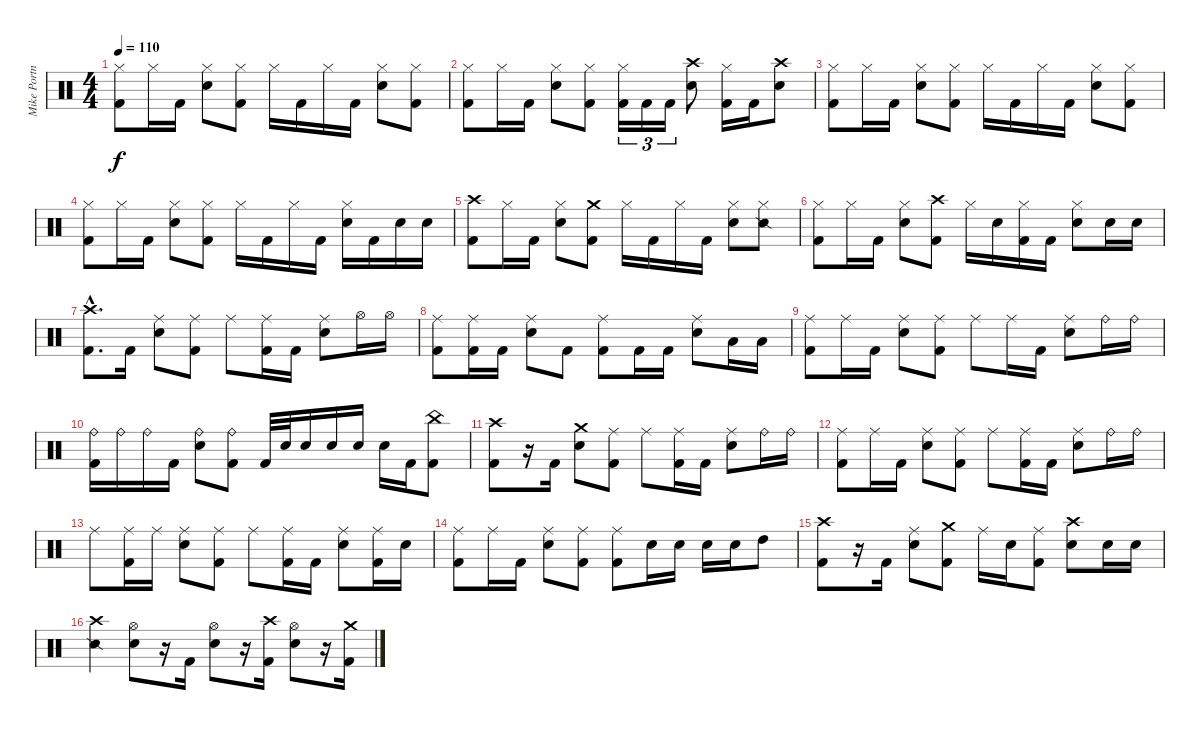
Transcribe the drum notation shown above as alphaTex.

\track ("Mike Portnoy - Drums" "Mike Portn") {instrument percussion}
\staff {score}
\articulation defaults
\ts (4 4)
\tempo 110
\clef neutral
\ks c
("Hi-Hat (closed)" "Kick (hit) 2").8{dy f} "Hi-Hat (closed)".16 "Kick (hit) 2".16 ("Hi-Hat (closed)" "Electric Snare (hit)").8 ("Hi-Hat (closed)" "Kick (hit) 2").8 "Hi-Hat (closed)".16 "Kick (hit) 2".16 "Hi-Hat (closed)".16 "Kick (hit) 2".16 ("Hi-Hat (closed)" "Electric Snare (hit)").8 ("Hi-Hat (closed)" "Kick (hit) 2").8 |
("Hi-Hat (closed)" "Kick (hit) 2").8 "Hi-Hat (closed)".16 "Kick (hit) 2".16 ("Hi-Hat (closed)" "Electric Snare (hit)").8 ("Hi-Hat (closed)" "Kick (hit) 2").8 ("Hi-Hat (closed)" "Kick (hit) 2").16{tu (3 2)} "Kick (hit) 2".16{tu (3 2)} "Kick (hit) 2".16{tu (3 2)} ("Crash high (hit)" "Electric Snare (hit)").8 ("Hi-Hat (closed)" "Kick (hit) 2").16 "Kick (hit) 2".16 ("Crash high (hit)" "Electric Snare (hit)").8 |
("Hi-Hat (closed)" "Kick (hit) 2").8 "Hi-Hat (closed)".16 "Kick (hit) 2".16 ("Hi-Hat (closed)" "Electric Snare (hit)").8 ("Hi-Hat (closed)" "Kick (hit) 2").8 "Hi-Hat (closed)".16 "Kick (hit) 2".16 "Hi-Hat (closed)".16 "Kick (hit) 2".16 ("Hi-Hat (closed)" "Electric Snare (hit)").8 ("Hi-Hat (closed)" "Kick (hit) 2").8 |
("Hi-Hat (closed)" "Kick (hit) 2").8 "Hi-Hat (closed)".16 "Kick (hit) 2".16 ("Hi-Hat (closed)" "Electric Snare (hit)").8 ("Hi-Hat (closed)" "Kick (hit) 2").8 "Hi-Hat (closed)".16 "Kick (hit) 2".16 "Hi-Hat (closed)".16 "Kick (hit) 2".16 ("Hi-Hat (closed)" "Electric Snare (hit)").16 "Kick (hit) 2".16 "Electric Snare (hit)".16 "Electric Snare (hit)".16 |
("Crash high (hit)" "Kick (hit) 2").8 "Hi-Hat (closed)".16 "Kick (hit) 2".16 ("Hi-Hat (closed)" "Electric Snare (hit)").8 ("Crash medium (hit)" "Kick (hit) 2").8 "Hi-Hat (closed)".16 "Kick (hit) 2".16 "Hi-Hat (closed)".16 "Kick (hit) 2".16 ("Hi-Hat (closed)" "Electric Snare (hit)").8 ("Hi-Hat (closed)" "Snare (side stick) 2").8 |
("Hi-Hat (closed)" "Kick (hit) 2").8 "Hi-Hat (closed)".16 "Kick (hit) 2".16 ("Hi-Hat (closed)" "Electric Snare (hit)").8 ("Crash high (hit)" "Kick (hit) 2").8 "Hi-Hat (closed)".16 "Electric Snare (hit)".16 ("Hi-Hat (closed)" "Kick (hit) 2").16 "Kick (hit) 2".16 ("Hi-Hat (closed)" "Electric Snare (hit)").8 "Electric Snare (hit)".16 "Electric Snare (hit)".16 |
("Crash high (hit)"{hac} "Kick (hit) 2"{hac}).8{d} "Kick (hit) 2".16 ("Ride (middle)" "Electric Snare (hit)").8 ("Ride (middle)" "Kick (hit) 2").8 "Ride (middle)".8 ("Ride (middle)" "Kick (hit) 2").16 "Kick (hit) 2".16 ("Ride (middle)" "Electric Snare (hit)").8 "Hi-Hat (open)".16 "Hi-Hat (open)".16 |
("Ride (middle)" "Kick (hit) 2").8 ("Ride (middle)" "Kick (hit) 2").16 "Kick (hit) 2".16 ("Ride (middle)" "Electric Snare (hit)").8 "Kick (hit) 2".8 ("Ride (middle)" "Kick (hit) 2").8 "Kick (hit) 2".16 "Kick (hit) 2".16 ("Ride (middle)" "Electric Snare (hit)").8 "Low Tom (hit)".16 "Low Tom (hit)".16 |
("Ride (middle)" "Kick (hit) 2").8 "Ride (middle)".16 "Kick (hit) 2".16 ("Ride (middle)" "Electric Snare (hit)").8 ("Ride (middle)" "Kick (hit) 2").8 "Ride (middle)".8 "Ride (middle)".16 "Kick (hit) 2".16 ("Ride (middle)" "Electric Snare (hit)").8 "Ride (bell)".16 "Ride (bell)".16 |
("Ride (bell)" "Kick (hit) 2").16 "Ride (bell)".16 "Ride (bell)".16 "Kick (hit) 2".16 ("Ride (bell)" "Electric Snare (hit)").8 ("Ride (bell)" "Kick (hit) 2").8 "Kick (hit) 2".32 "Electric Snare (hit)".32 "Electric Snare (hit)".16 "Electric Snare (hit)".16 "Electric Snare (hit)".16 "Electric Snare (hit)".16 "Kick (hit) 2".16 ("China (hit)" "Kick (hit) 2").8 |
("Crash high (hit)" "Kick (hit) 2").8 r.16 "Kick (hit) 2".16 ("Crash medium (hit)" "Electric Snare (hit)").8 ("Ride (middle)" "Kick (hit) 2").8 "Ride (middle)".8 ("Ride (middle)" "Kick (hit) 2").16 "Kick (hit) 2".16 ("Ride (middle)" "Electric Snare (hit)").8 "Ride (bell)".16 "Ride (bell)".16 |
("Ride (middle)" "Kick (hit) 2").8 "Ride (middle)".16 "Kick (hit) 2".16 ("Ride (middle)" "Electric Snare (hit)").8 ("Ride (middle)" "Kick (hit) 2").8 "Ride (middle)".8 ("Ride (middle)" "Kick (hit) 2").16 "Kick (hit) 2".16 ("Ride (middle)" "Electric Snare (hit)").8 "Ride (bell)".16 "Ride (bell)".16 |
"Ride (middle)".8 ("Ride (middle)" "Kick (hit) 2").16 "Ride (middle)".16 ("Ride (middle)" "Electric Snare (hit)").8 ("Ride (middle)" "Kick (hit) 2").8 "Ride (middle)".8 ("Ride (middle)" "Kick (hit) 2").16 "Kick (hit) 2".16 ("Ride (middle)" "Electric Snare (hit)").8 ("Ride (middle)" "Kick (hit) 2").16 "Electric Snare (hit)".16 |
("Ride (middle)" "Kick (hit) 2").8 "Ride (middle)".16 "Kick (hit) 2".16 ("Ride (middle)" "Electric Snare (hit)").8 ("Ride (middle)" "Kick (hit) 2").8 ("Ride (middle)" "Kick (hit) 2").8 "Electric Snare (hit)".16 "Electric Snare (hit)".16 "Electric Snare (hit)".16 "Electric Snare (hit)".16 "High Tom (hit)".8 |
("Crash high (hit)" "Kick (hit) 2").8 r.16 "Kick (hit) 2".16 ("Ride (middle)" "Electric Snare (hit)").8 ("Crash medium (hit)" "Kick (hit) 2").8 "Ride (middle)".16 "Electric Snare (hit)".16 ("Ride (middle)" "Kick (hit) 2").8 ("Crash high (hit)" "Electric Snare (hit)").8 "Electric Snare (hit)".16 "Electric Snare (hit)".16 |
("Crash high (hit)" "Snare (side stick) 2").4 ("Hi-Hat (open)" "Electric Snare (hit)").8 r.16 "Kick (hit) 2".16 ("Hi-Hat (open)" "Electric Snare (hit)").8 r.16 ("Crash high (hit)" "Kick (hit) 2").16 ("Hi-Hat (open)" "Electric Snare (hit)").8 r.16 ("Crash medium (hit)" "Kick (hit) 2").16
